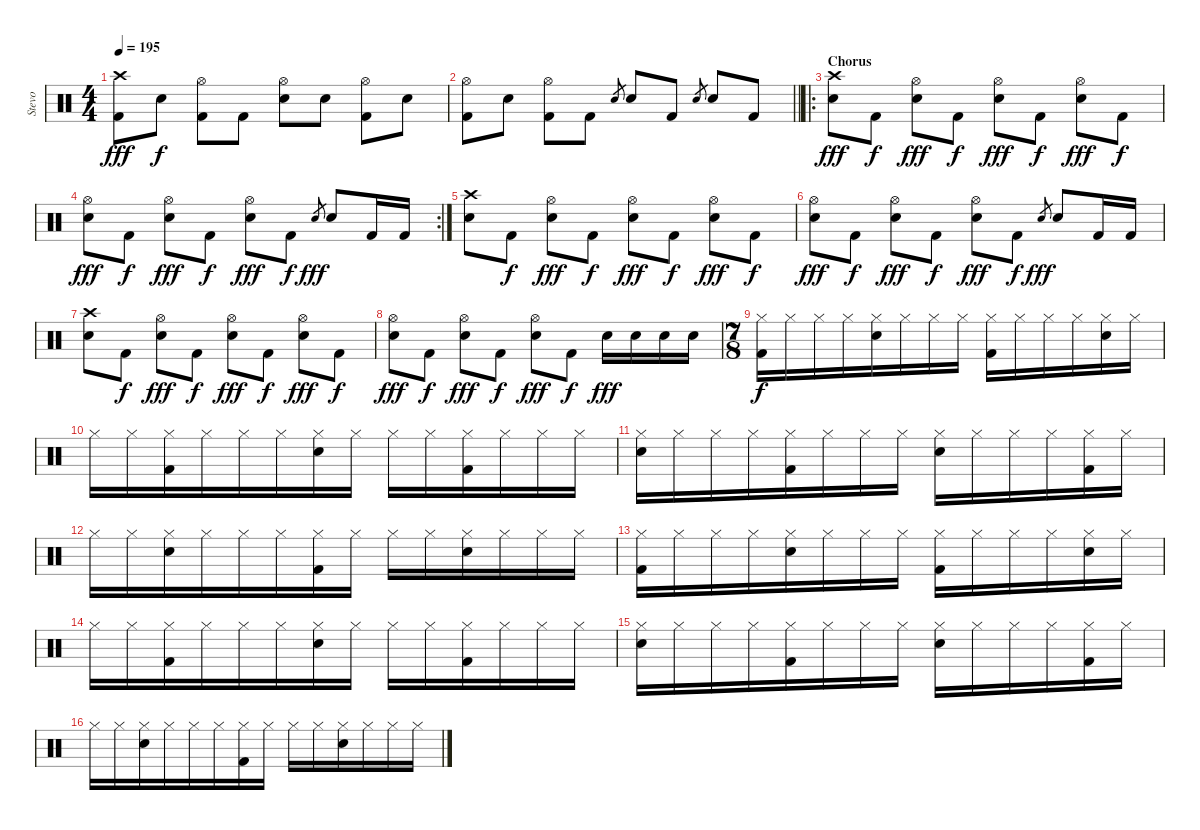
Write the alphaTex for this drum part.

\track ("Stevo" "Stevo") {instrument percussion}
\staff {score}
\articulation defaults
\ts (4 4)
\tempo 195
\clef neutral
\ks c
("Crash high (hit)" "Kick (hit) 2").8{dy fff} "Electric Snare (hit)".8{dy f} ("Hi-Hat (open)" "Kick (hit) 2").8 "Kick (hit) 2".8 ("Hi-Hat (open)" "Electric Snare (hit)").8 "Electric Snare (hit)".8 ("Hi-Hat (open)" "Kick (hit) 2").8 "Electric Snare (hit)".8 |
\barLineRight lightlight
("Hi-Hat (open)" "Kick (hit) 2").8 "Electric Snare (hit)".8 ("Hi-Hat (open)" "Kick (hit) 2").8 "Kick (hit) 2".8 "Electric Snare (hit)".8{gr} "Electric Snare (hit)".8 "Kick (hit) 2".8 "Electric Snare (hit)".8{gr} "Electric Snare (hit)".8 "Kick (hit) 2".8 |
\ro
\section ("" "Chorus")
("Crash high (hit)" "Electric Snare (hit)").8{dy fff} "Kick (hit) 2".8{dy f} ("Hi-Hat (open)" "Electric Snare (hit)").8{dy fff} "Kick (hit) 2".8{dy f} ("Hi-Hat (open)" "Electric Snare (hit)").8{dy fff} "Kick (hit) 2".8{dy f} ("Hi-Hat (open)" "Electric Snare (hit)").8{dy fff} "Kick (hit) 2".8{dy f} |
\rc 2
("Hi-Hat (open)" "Electric Snare (hit)").8{dy fff} "Kick (hit) 2".8{dy f} ("Hi-Hat (open)" "Electric Snare (hit)").8{dy fff} "Kick (hit) 2".8{dy f} ("Hi-Hat (open)" "Electric Snare (hit)").8{dy fff} "Kick (hit) 2".8{dy f} "Electric Snare (hit)".8{gr dy fff} "Electric Snare (hit)".8 "Kick (hit) 2".16 "Kick (hit) 2".16 |
("Crash high (hit)" "Electric Snare (hit)").8 "Kick (hit) 2".8{dy f} ("Hi-Hat (open)" "Electric Snare (hit)").8{dy fff} "Kick (hit) 2".8{dy f} ("Hi-Hat (open)" "Electric Snare (hit)").8{dy fff} "Kick (hit) 2".8{dy f} ("Hi-Hat (open)" "Electric Snare (hit)").8{dy fff} "Kick (hit) 2".8{dy f} |
("Hi-Hat (open)" "Electric Snare (hit)").8{dy fff} "Kick (hit) 2".8{dy f} ("Hi-Hat (open)" "Electric Snare (hit)").8{dy fff} "Kick (hit) 2".8{dy f} ("Hi-Hat (open)" "Electric Snare (hit)").8{dy fff} "Kick (hit) 2".8{dy f} "Electric Snare (hit)".8{gr dy fff} "Electric Snare (hit)".8 "Kick (hit) 2".16 "Kick (hit) 2".16 |
("Crash high (hit)" "Electric Snare (hit)").8 "Kick (hit) 2".8{dy f} ("Hi-Hat (open)" "Electric Snare (hit)").8{dy fff} "Kick (hit) 2".8{dy f} ("Hi-Hat (open)" "Electric Snare (hit)").8{dy fff} "Kick (hit) 2".8{dy f} ("Hi-Hat (open)" "Electric Snare (hit)").8{dy fff} "Kick (hit) 2".8{dy f} |
("Hi-Hat (open)" "Electric Snare (hit)").8{dy fff} "Kick (hit) 2".8{dy f} ("Hi-Hat (open)" "Electric Snare (hit)").8{dy fff} "Kick (hit) 2".8{dy f} ("Hi-Hat (open)" "Electric Snare (hit)").8{dy fff} "Kick (hit) 2".8{dy f} "Electric Snare (hit)".16{dy fff} "Electric Snare (hit)".16 "Electric Snare (hit)".16 "Electric Snare (hit)".16 |
\ts (7 8)
("Hi-Hat (closed)" "Kick (hit) 2").16{dy f} "Hi-Hat (closed)".16 "Hi-Hat (closed)".16 "Hi-Hat (closed)".16 ("Hi-Hat (closed)" "Electric Snare (hit)").16 "Hi-Hat (closed)".16 "Hi-Hat (closed)".16 "Hi-Hat (closed)".16 ("Hi-Hat (closed)" "Kick (hit) 2").16 "Hi-Hat (closed)".16 "Hi-Hat (closed)".16 "Hi-Hat (closed)".16 ("Hi-Hat (closed)" "Electric Snare (hit)").16 "Hi-Hat (closed)".16 |
"Hi-Hat (closed)".16 "Hi-Hat (closed)".16 ("Hi-Hat (closed)" "Kick (hit) 2").16 "Hi-Hat (closed)".16 "Hi-Hat (closed)".16 "Hi-Hat (closed)".16 ("Hi-Hat (closed)" "Electric Snare (hit)").16 "Hi-Hat (closed)".16 "Hi-Hat (closed)".16 "Hi-Hat (closed)".16 ("Hi-Hat (closed)" "Kick (hit) 2").16 "Hi-Hat (closed)".16 "Hi-Hat (closed)".16 "Hi-Hat (closed)".16 |
("Hi-Hat (closed)" "Electric Snare (hit)").16 "Hi-Hat (closed)".16 "Hi-Hat (closed)".16 "Hi-Hat (closed)".16 ("Hi-Hat (closed)" "Kick (hit) 2").16 "Hi-Hat (closed)".16 "Hi-Hat (closed)".16 "Hi-Hat (closed)".16 ("Hi-Hat (closed)" "Electric Snare (hit)").16 "Hi-Hat (closed)".16 "Hi-Hat (closed)".16 "Hi-Hat (closed)".16 ("Hi-Hat (closed)" "Kick (hit) 2").16 "Hi-Hat (closed)".16 |
"Hi-Hat (closed)".16 "Hi-Hat (closed)".16 ("Hi-Hat (closed)" "Electric Snare (hit)").16 "Hi-Hat (closed)".16 "Hi-Hat (closed)".16 "Hi-Hat (closed)".16 ("Hi-Hat (closed)" "Kick (hit) 2").16 "Hi-Hat (closed)".16 "Hi-Hat (closed)".16 "Hi-Hat (closed)".16 ("Hi-Hat (closed)" "Electric Snare (hit)").16 "Hi-Hat (closed)".16 "Hi-Hat (closed)".16 "Hi-Hat (closed)".16 |
("Hi-Hat (closed)" "Kick (hit) 2").16 "Hi-Hat (closed)".16 "Hi-Hat (closed)".16 "Hi-Hat (closed)".16 ("Hi-Hat (closed)" "Electric Snare (hit)").16 "Hi-Hat (closed)".16 "Hi-Hat (closed)".16 "Hi-Hat (closed)".16 ("Hi-Hat (closed)" "Kick (hit) 2").16 "Hi-Hat (closed)".16 "Hi-Hat (closed)".16 "Hi-Hat (closed)".16 ("Hi-Hat (closed)" "Electric Snare (hit)").16 "Hi-Hat (closed)".16 |
"Hi-Hat (closed)".16 "Hi-Hat (closed)".16 ("Hi-Hat (closed)" "Kick (hit) 2").16 "Hi-Hat (closed)".16 "Hi-Hat (closed)".16 "Hi-Hat (closed)".16 ("Hi-Hat (closed)" "Electric Snare (hit)").16 "Hi-Hat (closed)".16 "Hi-Hat (closed)".16 "Hi-Hat (closed)".16 ("Hi-Hat (closed)" "Kick (hit) 2").16 "Hi-Hat (closed)".16 "Hi-Hat (closed)".16 "Hi-Hat (closed)".16 |
("Hi-Hat (closed)" "Electric Snare (hit)").16 "Hi-Hat (closed)".16 "Hi-Hat (closed)".16 "Hi-Hat (closed)".16 ("Hi-Hat (closed)" "Kick (hit) 2").16 "Hi-Hat (closed)".16 "Hi-Hat (closed)".16 "Hi-Hat (closed)".16 ("Hi-Hat (closed)" "Electric Snare (hit)").16 "Hi-Hat (closed)".16 "Hi-Hat (closed)".16 "Hi-Hat (closed)".16 ("Hi-Hat (closed)" "Kick (hit) 2").16 "Hi-Hat (closed)".16 |
"Hi-Hat (closed)".16 "Hi-Hat (closed)".16 ("Hi-Hat (closed)" "Electric Snare (hit)").16 "Hi-Hat (closed)".16 "Hi-Hat (closed)".16 "Hi-Hat (closed)".16 ("Hi-Hat (closed)" "Kick (hit) 2").16 "Hi-Hat (closed)".16 "Hi-Hat (closed)".16 "Hi-Hat (closed)".16 ("Hi-Hat (closed)" "Electric Snare (hit)").16 "Hi-Hat (closed)".16 "Hi-Hat (closed)".16 "Hi-Hat (closed)".16
